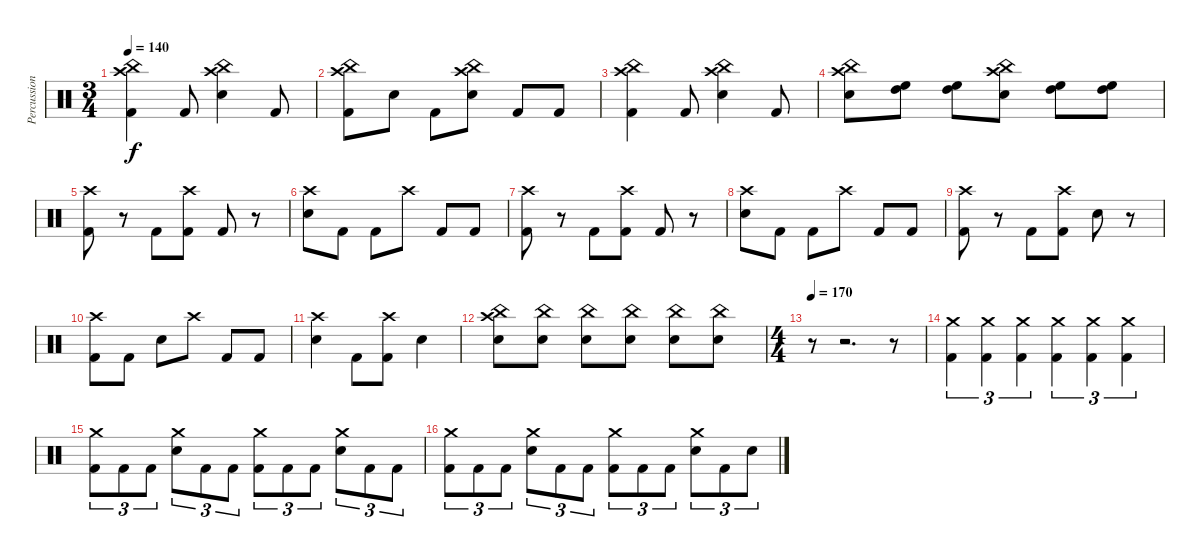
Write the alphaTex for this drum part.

\track ("Percussion" "Percussion") {instrument percussion}
\staff {score}
\articulation defaults
\ts (3 4)
\tempo 140
\clef neutral
\ks c
("Crash high (hit)" "China (hit)" "Kick (hit) 2").4{dy f} "Kick (hit) 2".8 ("Crash high (hit)" "China (hit)" "Electric Snare (hit)").4 "Kick (hit) 2".8 |
("Crash high (hit)" "China (hit)" "Kick (hit) 2").8 "Electric Snare (hit)".8 "Kick (hit) 2".8 ("Crash high (hit)" "China (hit)" "Electric Snare (hit)").8 "Kick (hit) 2".8 "Kick (hit) 2".8 |
("Crash high (hit)" "China (hit)" "Kick (hit) 2").4 "Kick (hit) 2".8 ("Crash high (hit)" "China (hit)" "Electric Snare (hit)").4 "Kick (hit) 2".8 |
("Crash high (hit)" "China (hit)" "Electric Snare (hit)").8 ("High Floor Tom (hit)" "High Tom (hit)").8 ("High Floor Tom (hit)" "High Tom (hit)").8 ("Crash high (hit)" "China (hit)" "Electric Snare (hit)").8 ("High Floor Tom (hit)" "High Tom (hit)").8 ("High Floor Tom (hit)" "High Tom (hit)").8 |
("Crash high (hit)" "Kick (hit) 2").8 r.8 "Kick (hit) 2".8 ("Crash high (hit)" "Kick (hit) 2").8 "Kick (hit) 2".8 r.8 |
("Crash high (hit)" "Electric Snare (hit)").8 "Kick (hit) 2".8 "Kick (hit) 2".8 "Crash high (hit)".8 "Kick (hit) 2".8 "Kick (hit) 2".8 |
("Crash high (hit)" "Kick (hit) 2").8 r.8 "Kick (hit) 2".8 ("Crash high (hit)" "Kick (hit) 2").8 "Kick (hit) 2".8 r.8 |
("Crash high (hit)" "Electric Snare (hit)").8 "Kick (hit) 2".8 "Kick (hit) 2".8 "Crash high (hit)".8 "Kick (hit) 2".8 "Kick (hit) 2".8 |
("Crash high (hit)" "Kick (hit) 2").8 r.8 "Kick (hit) 2".8 ("Crash high (hit)" "Kick (hit) 2").8 "Electric Snare (hit)".8 r.8 |
("Crash high (hit)" "Kick (hit) 2").8 "Kick (hit) 2".8 "Electric Snare (hit)".8 "Crash high (hit)".8 "Kick (hit) 2".8 "Kick (hit) 2".8 |
("Crash high (hit)" "Electric Snare (hit)").4 "Kick (hit) 2".8 ("Crash high (hit)" "Kick (hit) 2").8 "Electric Snare (hit)".4 |
("Crash high (hit)" "China (hit)" "Electric Snare (hit)").8 ("China (hit)" "Electric Snare (hit)").8 ("China (hit)" "Electric Snare (hit)").8 ("China (hit)" "Electric Snare (hit)").8 ("China (hit)" "Electric Snare (hit)").8 ("China (hit)" "Electric Snare (hit)").8 |
\ts (4 4)
\tempo 170
r.8 r.2{d} r.8 |
("Crash medium (hit)" "Kick (hit) 2").4{tu (3 2)} ("Crash medium (hit)" "Kick (hit) 2").4{tu (3 2)} ("Crash medium (hit)" "Kick (hit) 2").4{tu (3 2)} ("Crash medium (hit)" "Kick (hit) 2").4{tu (3 2)} ("Crash medium (hit)" "Kick (hit) 2").4{tu (3 2)} ("Crash medium (hit)" "Kick (hit) 2").4{tu (3 2)} |
("Crash medium (hit)" "Kick (hit) 2").8{tu (3 2)} "Kick (hit) 2".8{tu (3 2)} "Kick (hit) 2".8{tu (3 2)} ("Crash medium (hit)" "Electric Snare (hit)").8{tu (3 2)} "Kick (hit) 2".8{tu (3 2)} "Kick (hit) 2".8{tu (3 2)} ("Crash medium (hit)" "Kick (hit) 2").8{tu (3 2)} "Kick (hit) 2".8{tu (3 2)} "Kick (hit) 2".8{tu (3 2)} ("Crash medium (hit)" "Electric Snare (hit)").8{tu (3 2)} "Kick (hit) 2".8{tu (3 2)} "Kick (hit) 2".8{tu (3 2)} |
("Crash medium (hit)" "Kick (hit) 2").8{tu (3 2)} "Kick (hit) 2".8{tu (3 2)} "Kick (hit) 2".8{tu (3 2)} ("Crash medium (hit)" "Electric Snare (hit)").8{tu (3 2)} "Kick (hit) 2".8{tu (3 2)} "Kick (hit) 2".8{tu (3 2)} ("Crash medium (hit)" "Kick (hit) 2").8{tu (3 2)} "Kick (hit) 2".8{tu (3 2)} "Kick (hit) 2".8{tu (3 2)} ("Crash medium (hit)" "Electric Snare (hit)").8{tu (3 2)} "Kick (hit) 2".8{tu (3 2)} "Electric Snare (hit)".8{tu (3 2)}
